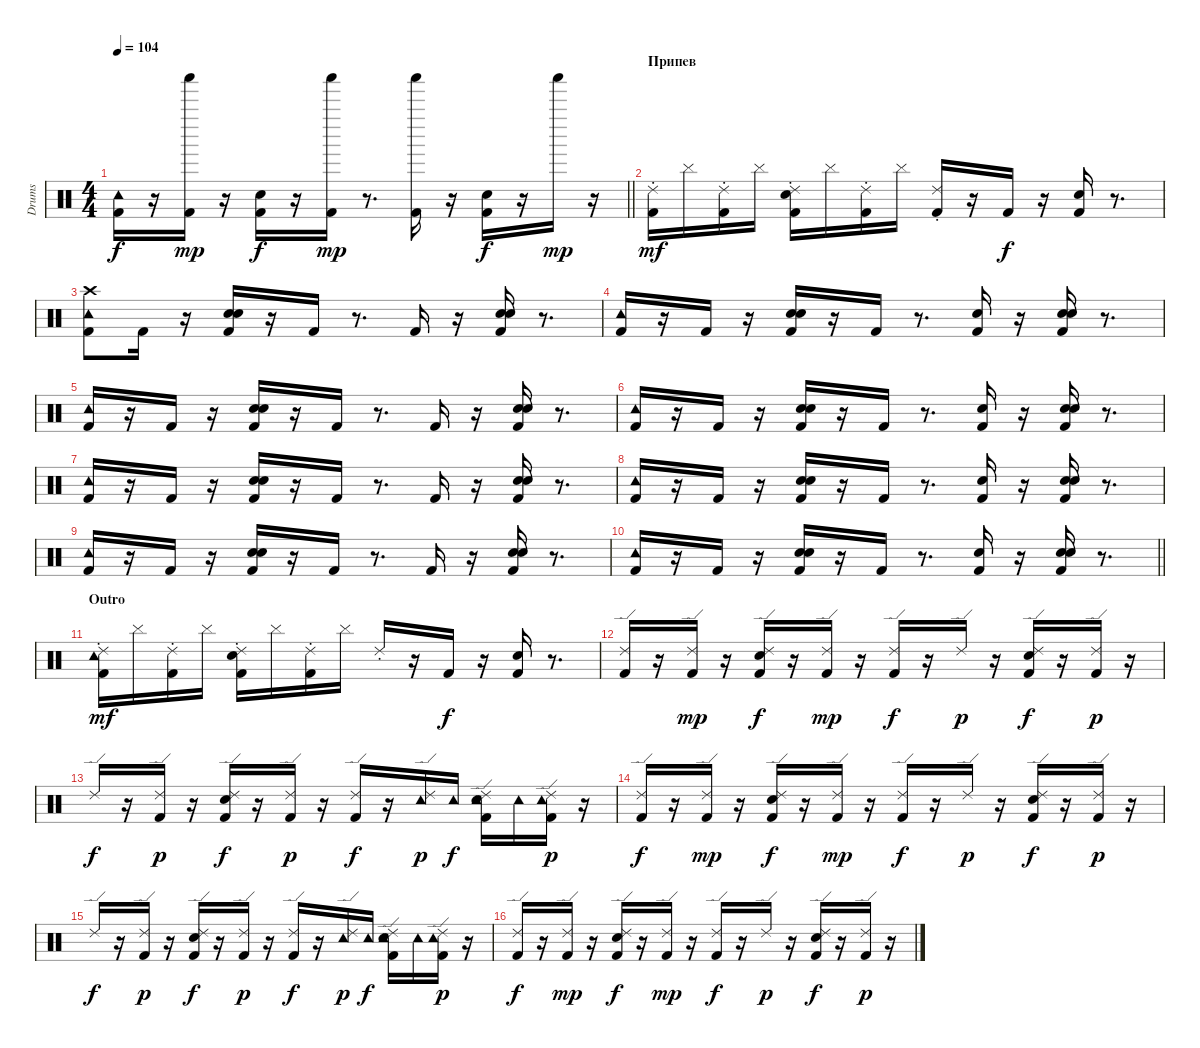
\track ("Drums" "Drums") {instrument percussion}
\staff {score}
\articulation defaults
\ts (4 4)
\tempo 104
\clef neutral
\barLineRight lightlight
\ks c
("Tambourine (hit)" "Kick (hit) 2").16{dy f} r.16 ("Kick (hit) 2" "Shaker (hit)").16{dy mp} r.16 ("Kick (hit) 2" "Snare (hit) 2").16{dy f} r.16 ("Kick (hit) 2" "Shaker (hit)").16{dy mp} r.8{d} ("Shaker (hit)" "Kick (hit) 2").16 r.16 ("Snare (hit) 2" "Kick (hit) 2").16{dy f} r.16 "Shaker (hit)".16{dy mp} r.16 |
\section ("" "Припев")
("Kick (hit) 2" "Ride (choke) 2").16{dy mf} "Cymbal (hit)".16 ("Kick (hit) 2" "Ride (choke) 2").16 "Cymbal (hit)".16 ("Snare (hit) 2" "Kick (hit) 2" "Ride (choke) 2").16 "Cymbal (hit)".16 ("Kick (hit) 2" "Ride (choke) 2").16 "Cymbal (hit)".16 ("Kick (hit) 2" "Ride (choke) 2").16 r.16 "Kick (hit) 2".16{dy f} r.16 ("Snare (hit) 2" "Kick (hit) 2").16 r.8{d} |
("Crash high (hit)" "Tambourine (hit)" "Kick (hit) 2").8 "Kick (hit) 2".16 r.16 ("Hand Clap (hit)" "Kick (hit) 2" "Snare (hit) 2").16 r.16 "Kick (hit) 2".16 r.8{d} "Kick (hit) 2".16 r.16 ("Hand Clap (hit)" "Snare (hit) 2" "Kick (hit) 2").16 r.8{d} |
("Tambourine (hit)" "Kick (hit) 2").16 r.16 "Kick (hit) 2".16 r.16 ("Hand Clap (hit)" "Kick (hit) 2" "Snare (hit) 2").16 r.16 "Kick (hit) 2".16 r.8{d} ("Hand Clap (hit)" "Kick (hit) 2").16 r.16 ("Hand Clap (hit)" "Snare (hit) 2" "Kick (hit) 2").16 r.8{d} |
("Tambourine (hit)" "Kick (hit) 2").16 r.16 "Kick (hit) 2".16 r.16 ("Hand Clap (hit)" "Kick (hit) 2" "Snare (hit) 2").16 r.16 "Kick (hit) 2".16 r.8{d} "Kick (hit) 2".16 r.16 ("Hand Clap (hit)" "Snare (hit) 2" "Kick (hit) 2").16 r.8{d} |
("Tambourine (hit)" "Kick (hit) 2").16 r.16 "Kick (hit) 2".16 r.16 ("Hand Clap (hit)" "Kick (hit) 2" "Snare (hit) 2").16 r.16 "Kick (hit) 2".16 r.8{d} ("Hand Clap (hit)" "Kick (hit) 2").16 r.16 ("Hand Clap (hit)" "Snare (hit) 2" "Kick (hit) 2").16 r.8{d} |
("Tambourine (hit)" "Kick (hit) 2").16 r.16 "Kick (hit) 2".16 r.16 ("Hand Clap (hit)" "Kick (hit) 2" "Snare (hit) 2").16 r.16 "Kick (hit) 2".16 r.8{d} "Kick (hit) 2".16 r.16 ("Hand Clap (hit)" "Snare (hit) 2" "Kick (hit) 2").16 r.8{d} |
("Tambourine (hit)" "Kick (hit) 2").16 r.16 "Kick (hit) 2".16 r.16 ("Hand Clap (hit)" "Kick (hit) 2" "Snare (hit) 2").16 r.16 "Kick (hit) 2".16 r.8{d} ("Hand Clap (hit)" "Kick (hit) 2").16 r.16 ("Hand Clap (hit)" "Snare (hit) 2" "Kick (hit) 2").16 r.8{d} |
("Tambourine (hit)" "Kick (hit) 2").16 r.16 "Kick (hit) 2".16 r.16 ("Hand Clap (hit)" "Kick (hit) 2" "Snare (hit) 2").16 r.16 "Kick (hit) 2".16 r.8{d} "Kick (hit) 2".16 r.16 ("Hand Clap (hit)" "Snare (hit) 2" "Kick (hit) 2").16 r.8{d} |
\barLineRight lightlight
("Tambourine (hit)" "Kick (hit) 2").16 r.16 "Kick (hit) 2".16 r.16 ("Hand Clap (hit)" "Kick (hit) 2" "Snare (hit) 2").16 r.16 "Kick (hit) 2".16 r.8{d} ("Hand Clap (hit)" "Kick (hit) 2").16 r.16 ("Hand Clap (hit)" "Snare (hit) 2" "Kick (hit) 2").16 r.8{d} |
\section ("" "Outro")
("Ride (choke) 2" "Tambourine (hit)" "Kick (hit) 2").16{dy mf} "Cymbal (hit)".16 ("Ride (choke) 2" "Kick (hit) 2").16 "Cymbal (hit)".16 ("Ride (choke) 2" "Kick (hit) 2" "Snare (hit) 2").16 "Cymbal (hit)".16 ("Ride (choke) 2" "Kick (hit) 2").16 "Cymbal (hit)".16 "Ride (choke) 2".16 r.16 "Kick (hit) 2".16{dy f} r.16 ("Snare (hit) 2" "Kick (hit) 2").16 r.8{d} |
("Ride (edge) 2" "Kick (hit) 2").16 r.16 ("Ride (edge) 2" "Kick (hit) 2").16{dy mp} r.16 ("Ride (edge) 2" "Snare (hit) 2" "Kick (hit) 2").16{dy f} r.16 ("Ride (edge) 2" "Kick (hit) 2").16{dy mp} r.16 ("Ride (edge) 2" "Kick (hit) 2").16{dy f} r.16 "Ride (edge) 2".16{dy p} r.16 ("Ride (edge) 2" "Kick (hit) 2" "Snare (hit) 2").16{dy f} r.16 ("Ride (edge) 2" "Kick (hit) 2").16{dy p} r.16 |
"Ride (edge) 2".16{dy f} r.16 ("Ride (edge) 2" "Kick (hit) 2").16{dy p} r.16 ("Ride (edge) 2" "Kick (hit) 2" "Snare (hit) 2").16{dy f} r.16 ("Ride (edge) 2" "Kick (hit) 2").16{dy p} r.16 ("Ride (edge) 2" "Kick (hit) 2").16{dy f} r.16 ("Tambourine (hit)" "Ride (edge) 2").16{dy p} "Tambourine (hit)".16{dy f} ("Tambourine (hit)" "Ride (edge) 2" "Kick (hit) 2" "Snare (hit) 2").16 "Tambourine (hit)".16 ("Tambourine (hit)" "Ride (edge) 2" "Kick (hit) 2").16{dy p} r.16 |
("Ride (edge) 2" "Kick (hit) 2").16{dy f} r.16 ("Ride (edge) 2" "Kick (hit) 2").16{dy mp} r.16 ("Ride (edge) 2" "Snare (hit) 2" "Kick (hit) 2").16{dy f} r.16 ("Ride (edge) 2" "Kick (hit) 2").16{dy mp} r.16 ("Ride (edge) 2" "Kick (hit) 2").16{dy f} r.16 "Ride (edge) 2".16{dy p} r.16 ("Ride (edge) 2" "Kick (hit) 2" "Snare (hit) 2").16{dy f} r.16 ("Ride (edge) 2" "Kick (hit) 2").16{dy p} r.16 |
"Ride (edge) 2".16{dy f} r.16 ("Ride (edge) 2" "Kick (hit) 2").16{dy p} r.16 ("Ride (edge) 2" "Kick (hit) 2" "Snare (hit) 2").16{dy f} r.16 ("Ride (edge) 2" "Kick (hit) 2").16{dy p} r.16 ("Ride (edge) 2" "Kick (hit) 2").16{dy f} r.16 ("Tambourine (hit)" "Ride (edge) 2").16{dy p} "Tambourine (hit)".16{dy f} ("Tambourine (hit)" "Ride (edge) 2" "Kick (hit) 2" "Snare (hit) 2").16 "Tambourine (hit)".16 ("Tambourine (hit)" "Ride (edge) 2" "Kick (hit) 2").16{dy p} r.16 |
("Ride (edge) 2" "Kick (hit) 2").16{dy f} r.16 ("Ride (edge) 2" "Kick (hit) 2").16{dy mp} r.16 ("Ride (edge) 2" "Snare (hit) 2" "Kick (hit) 2").16{dy f} r.16 ("Ride (edge) 2" "Kick (hit) 2").16{dy mp} r.16 ("Ride (edge) 2" "Kick (hit) 2").16{dy f} r.16 "Ride (edge) 2".16{dy p} r.16 ("Ride (edge) 2" "Kick (hit) 2" "Snare (hit) 2").16{dy f} r.16 ("Ride (edge) 2" "Kick (hit) 2").16{dy p} r.16
